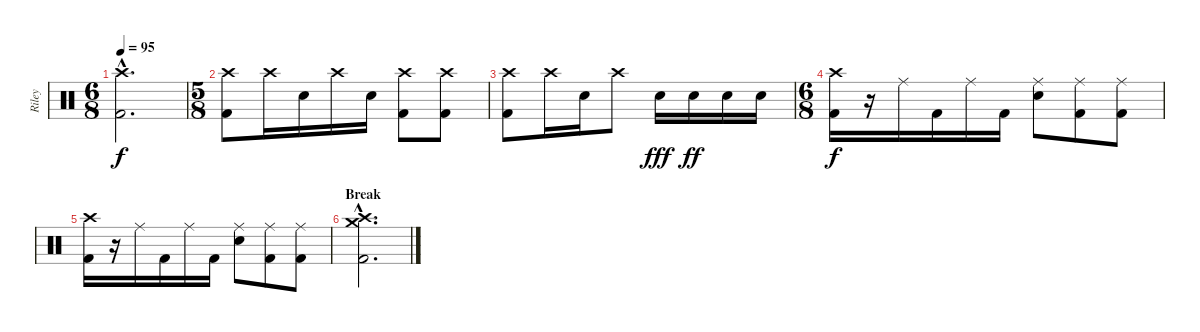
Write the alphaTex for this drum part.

\track ("Riley" "Riley") {instrument percussion}
\staff {score}
\articulation defaults
\ts (6 8)
\tempo 95
\clef neutral
\ks c
("Crash high (hit)"{hac} "Kick (hit) 2"{hac}).2{d dy f} |
\ts (5 8)
("Crash high (hit)" "Kick (hit) 2").8 "Crash high (hit)".16 "Electric Snare (hit)".16 "Crash high (hit)".16 "Electric Snare (hit)".16 ("Crash high (hit)" "Kick (hit) 2").8 ("Crash high (hit)" "Kick (hit) 2").8 |
("Crash high (hit)" "Kick (hit) 2").8 "Crash high (hit)".16 "Electric Snare (hit)".16 "Crash high (hit)".8 "Electric Snare (hit)".16{dy fff} "Electric Snare (hit)".16{dy ff} "Electric Snare (hit)".16 "Electric Snare (hit)".16 |
\ts (6 8)
("Crash high (hit)" "Kick (hit) 2").16{dy f} r.16 "Ride (middle)".16 "Kick (hit) 2".16 "Ride (middle)".16 "Kick (hit) 2".16 ("Ride (middle)" "Electric Snare (hit)").8 ("Ride (middle)" "Kick (hit) 2").8 ("Ride (middle)" "Kick (hit) 2").8 |
("Crash high (hit)" "Kick (hit) 2").16 r.16 "Ride (middle)".16 "Kick (hit) 2".16 "Ride (middle)".16 "Kick (hit) 2".16 ("Ride (middle)" "Electric Snare (hit)").8 ("Ride (middle)" "Kick (hit) 2").8 ("Ride (middle)" "Kick (hit) 2").8 |
\section ("" "Break")
("Crash high (hit)"{hac} "Crash medium (hit)"{hac} "Kick (hit) 2"{hac}).2{d}
